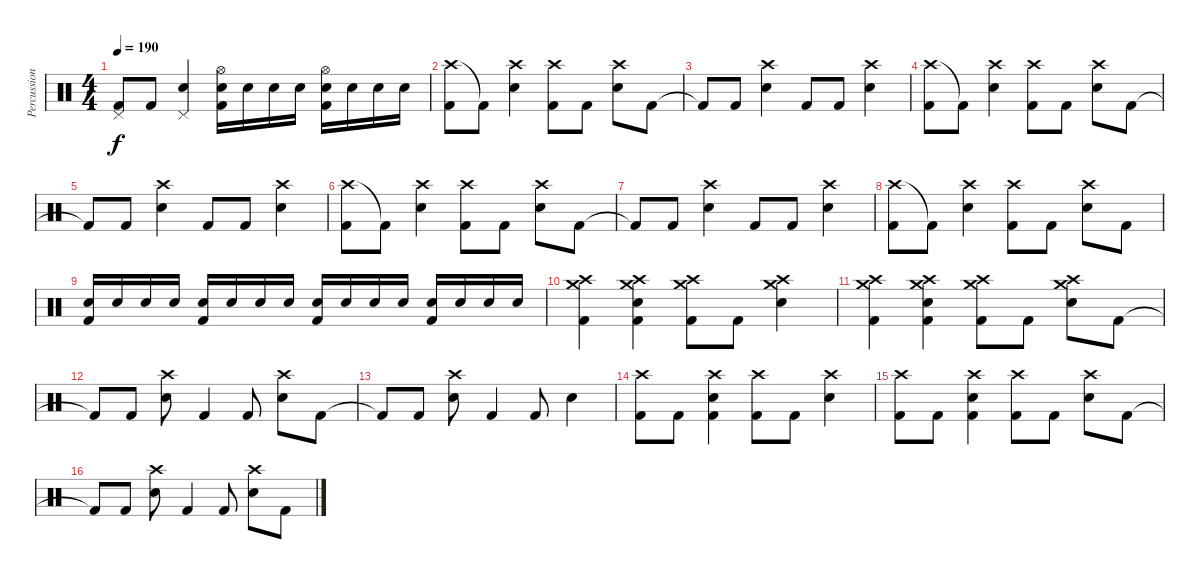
\track ("Percussion" "Percussion") {instrument percussion}
\staff {score}
\articulation defaults
\ts (4 4)
\tempo 190
\clef neutral
\ks c
("Pedal Hi-Hat (hit)" "Kick (hit) 2").8{dy f} "Kick (hit) 2".8 ("Pedal Hi-Hat (hit)" "Electric Snare (hit)").4 ("Hi-Hat (open)" "Electric Snare (hit)" "Kick (hit) 2").16 "Electric Snare (hit)".16 "Electric Snare (hit)".16 "Electric Snare (hit)".16 ("Hi-Hat (open)" "Electric Snare (hit)" "Kick (hit) 2").16 "Electric Snare (hit)".16 "Electric Snare (hit)".16 "Electric Snare (hit)".16 |
("Crash high (hit)" "Kick (hit) 2").8 "Kick (hit) 2"{t}.8 ("Crash high (hit)" "Electric Snare (hit)").4 ("Crash high (hit)" "Kick (hit) 2").8 "Kick (hit) 2".8 ("Crash high (hit)" "Electric Snare (hit)").8 "Kick (hit) 2".8 |
"Kick (hit) 2"{t}.8 "Kick (hit) 2".8 ("Crash high (hit)" "Electric Snare (hit)").4 "Kick (hit) 2".8 "Kick (hit) 2".8 ("Crash high (hit)" "Electric Snare (hit)").4 |
("Crash high (hit)" "Kick (hit) 2").8 "Kick (hit) 2"{t}.8 ("Crash high (hit)" "Electric Snare (hit)").4 ("Crash high (hit)" "Kick (hit) 2").8 "Kick (hit) 2".8 ("Crash high (hit)" "Electric Snare (hit)").8 "Kick (hit) 2".8 |
"Kick (hit) 2"{t}.8 "Kick (hit) 2".8 ("Crash high (hit)" "Electric Snare (hit)").4 "Kick (hit) 2".8 "Kick (hit) 2".8 ("Crash high (hit)" "Electric Snare (hit)").4 |
("Crash high (hit)" "Kick (hit) 2").8 "Kick (hit) 2"{t}.8 ("Crash high (hit)" "Electric Snare (hit)").4 ("Crash high (hit)" "Kick (hit) 2").8 "Kick (hit) 2".8 ("Crash high (hit)" "Electric Snare (hit)").8 "Kick (hit) 2".8 |
"Kick (hit) 2"{t}.8 "Kick (hit) 2".8 ("Crash high (hit)" "Electric Snare (hit)").4 "Kick (hit) 2".8 "Kick (hit) 2".8 ("Crash high (hit)" "Electric Snare (hit)").4 |
("Crash high (hit)" "Kick (hit) 2").8 "Kick (hit) 2"{t}.8 ("Crash high (hit)" "Electric Snare (hit)").4 ("Crash high (hit)" "Kick (hit) 2").8 "Kick (hit) 2".8 ("Crash high (hit)" "Electric Snare (hit)").8 "Kick (hit) 2".8 |
("Electric Snare (hit)" "Kick (hit) 2").16 "Electric Snare (hit)".16 "Electric Snare (hit)".16 "Electric Snare (hit)".16 ("Electric Snare (hit)" "Kick (hit) 2").16 "Electric Snare (hit)".16 "Electric Snare (hit)".16 "Electric Snare (hit)".16 ("Electric Snare (hit)" "Kick (hit) 2").16 "Electric Snare (hit)".16 "Electric Snare (hit)".16 "Electric Snare (hit)".16 ("Electric Snare (hit)" "Kick (hit) 2").16 "Electric Snare (hit)".16 "Electric Snare (hit)".16 "Electric Snare (hit)".16 |
("Crash medium (hit)" "Crash high (hit)" "Kick (hit) 2").4 ("Crash medium (hit)" "Crash high (hit)" "Electric Snare (hit)" "Kick (hit) 2").4 ("Crash medium (hit)" "Crash high (hit)" "Kick (hit) 2").8 "Kick (hit) 2".8 ("Crash medium (hit)" "Crash high (hit)" "Electric Snare (hit)").4 |
("Crash medium (hit)" "Crash high (hit)" "Kick (hit) 2").4 ("Crash medium (hit)" "Crash high (hit)" "Electric Snare (hit)" "Kick (hit) 2").4 ("Crash medium (hit)" "Crash high (hit)" "Kick (hit) 2").8 "Kick (hit) 2".8 ("Crash medium (hit)" "Crash high (hit)" "Electric Snare (hit)").8 "Kick (hit) 2".8 |
"Kick (hit) 2"{t}.8 "Kick (hit) 2".8 ("Crash high (hit)" "Electric Snare (hit)").8 "Kick (hit) 2".4 "Kick (hit) 2".8 ("Crash high (hit)" "Electric Snare (hit)").8 "Kick (hit) 2".8 |
"Kick (hit) 2"{t}.8 "Kick (hit) 2".8 ("Crash high (hit)" "Electric Snare (hit)").8 "Kick (hit) 2".4 "Kick (hit) 2".8 "Electric Snare (hit)".4 |
("Crash high (hit)" "Kick (hit) 2").8 "Kick (hit) 2".8 ("Crash high (hit)" "Electric Snare (hit)" "Kick (hit) 2").4 ("Crash high (hit)" "Kick (hit) 2").8 "Kick (hit) 2".8 ("Crash high (hit)" "Electric Snare (hit)").4 |
("Crash high (hit)" "Kick (hit) 2").8 "Kick (hit) 2".8 ("Crash high (hit)" "Electric Snare (hit)" "Kick (hit) 2").4 ("Crash high (hit)" "Kick (hit) 2").8 "Kick (hit) 2".8 ("Crash high (hit)" "Electric Snare (hit)").8 "Kick (hit) 2".8 |
"Kick (hit) 2"{t}.8 "Kick (hit) 2".8 ("Crash high (hit)" "Electric Snare (hit)").8 "Kick (hit) 2".4 "Kick (hit) 2".8 ("Crash high (hit)" "Electric Snare (hit)").8 "Kick (hit) 2".8
